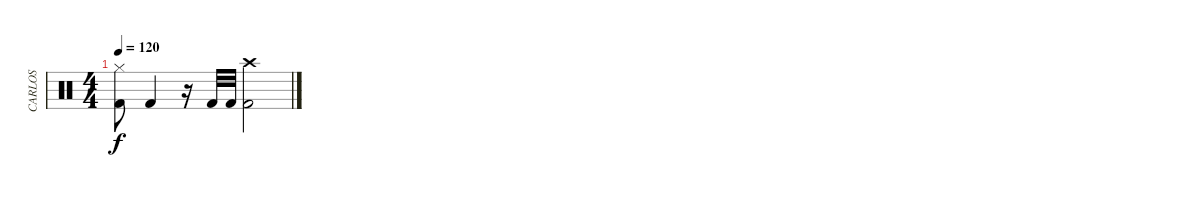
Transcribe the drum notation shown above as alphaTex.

\track ("CARLOS" "CARLOS") {instrument percussion}
\staff {score}
\articulation defaults
\ts (4 4)
\tempo 120
\clef neutral
\ks c
("Hi-Hat (closed)" "Kick (hit) 2").8{dy f} "Kick (hit) 2".4 r.16 "Kick (hit) 2".32 "Kick (hit) 2".32 ("Kick (hit) 2" "Crash high (hit)").2
